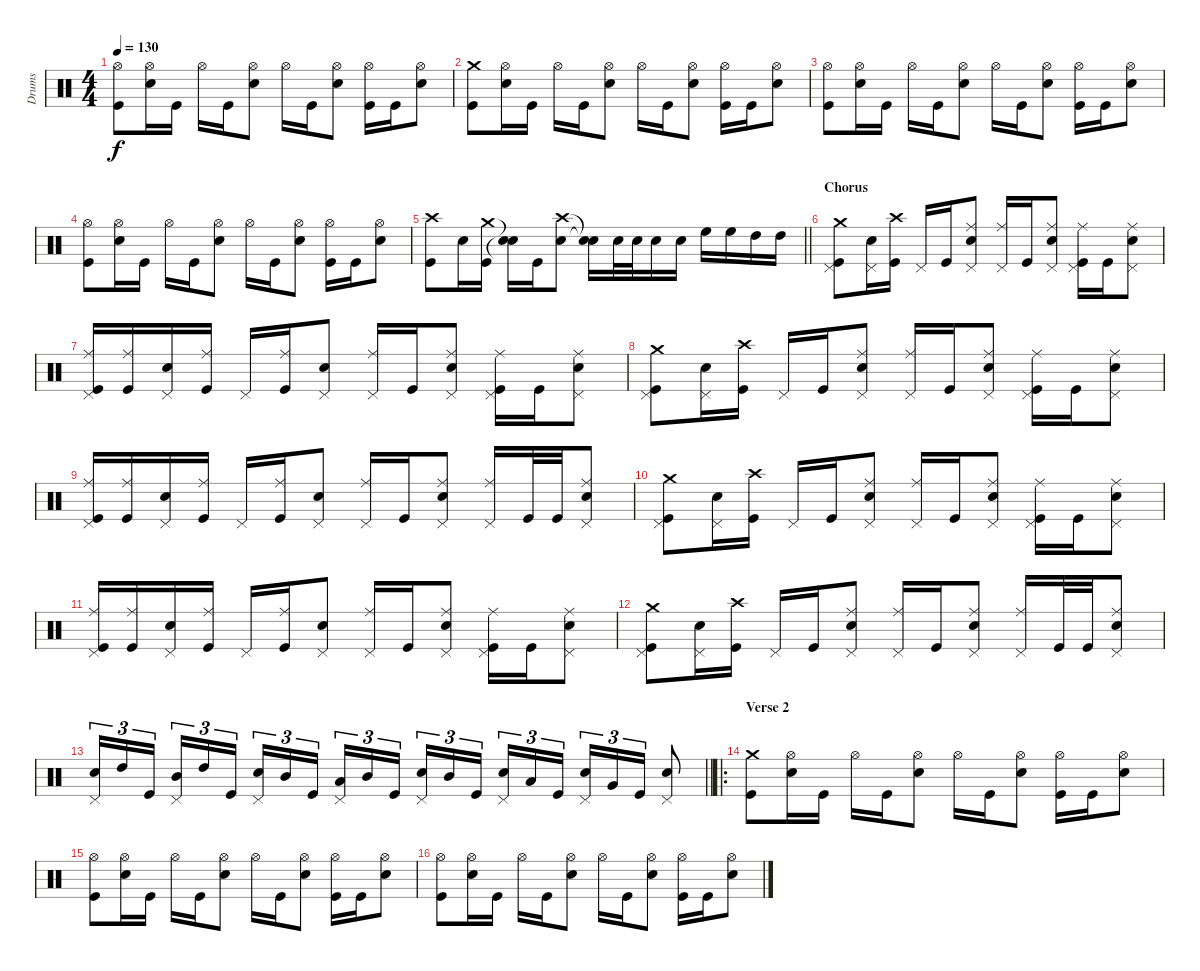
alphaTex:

\track ("Drums" "Drums") {instrument percussion}
\staff {score}
\articulation defaults
\ts (4 4)
\tempo 130
\clef neutral
\ks c
("Hi-Hat (open)" "Kick (hit)").8{dy f} ("Hi-Hat (open)" "Snare (hit) 2").16 "Kick (hit)".16 "Hi-Hat (open)".16 "Kick (hit)".16 ("Hi-Hat (open)" "Snare (hit) 2").8 "Hi-Hat (open)".16 "Kick (hit)".16 ("Hi-Hat (open)" "Snare (hit) 2").8 ("Hi-Hat (open)" "Kick (hit)").16 "Kick (hit)".16 ("Hi-Hat (open)" "Snare (hit) 2").8 |
("Crash medium (hit)" "Kick (hit)").8 ("Hi-Hat (open)" "Snare (hit) 2").16 "Kick (hit)".16 "Hi-Hat (open)".16 "Kick (hit)".16 ("Hi-Hat (open)" "Snare (hit) 2").8 "Hi-Hat (open)".16 "Kick (hit)".16 ("Hi-Hat (open)" "Snare (hit) 2").8 ("Hi-Hat (open)" "Kick (hit)").16 "Kick (hit)".16 ("Hi-Hat (open)" "Snare (hit) 2").8 |
("Hi-Hat (open)" "Kick (hit)").8 ("Hi-Hat (open)" "Snare (hit) 2").16 "Kick (hit)".16 "Hi-Hat (open)".16 "Kick (hit)".16 ("Hi-Hat (open)" "Snare (hit) 2").8 "Hi-Hat (open)".16 "Kick (hit)".16 ("Hi-Hat (open)" "Snare (hit) 2").8 ("Hi-Hat (open)" "Kick (hit)").16 "Kick (hit)".16 ("Hi-Hat (open)" "Snare (hit) 2").8 |
("Hi-Hat (open)" "Kick (hit)").8 ("Hi-Hat (open)" "Snare (hit) 2").16 "Kick (hit)".16 "Hi-Hat (open)".16 "Kick (hit)".16 ("Hi-Hat (open)" "Snare (hit) 2").8 "Hi-Hat (open)".16 "Kick (hit)".16 ("Hi-Hat (open)" "Snare (hit) 2").8 ("Hi-Hat (open)" "Kick (hit)").16 "Kick (hit)".16 ("Hi-Hat (open)" "Snare (hit) 2").8 |
\barLineRight lightlight
("Crash high (hit)" "Kick (hit)").8 "Snare (hit) 2".16 ("Crash medium (hit)" "Kick (hit)").16 ("Snare (hit)"{t} "Snare (hit)"{t}).16 "Kick (hit)".16 ("Crash high (hit)" "Snare (hit) 2").8 ("Snare (hit)"{t} "Snare (hit)"{t}).16 "Snare (hit) 2".32 "Snare (hit) 2".32 "Snare (hit) 2".16 "Snare (hit) 2".16 "High Floor Tom (hit)".16 "High Floor Tom (hit)".16 "High Tom (hit)".16 "High Tom (hit)".16 |
\section ("" "Chorus")
("Crash medium (hit)" "Pedal Hi-Hat (hit)" "Kick (hit)").8 ("Snare (hit) 2" "Pedal Hi-Hat (hit)").16 ("Crash high (hit)" "Kick (hit)").16 "Pedal Hi-Hat (hit)".16 "Kick (hit)".16 ("Ride (middle)" "Snare (hit) 2" "Pedal Hi-Hat (hit)").8 ("Ride (middle)" "Pedal Hi-Hat (hit)").16 "Kick (hit)".16 ("Ride (middle)" "Snare (hit) 2" "Pedal Hi-Hat (hit)").8 ("Ride (middle)" "Pedal Hi-Hat (hit)" "Kick (hit)").16 "Kick (hit)".16 ("Ride (middle)" "Snare (hit) 2" "Pedal Hi-Hat (hit)").8 |
("Ride (middle)" "Pedal Hi-Hat (hit)" "Kick (hit)").16 ("Ride (middle)" "Kick (hit)").16 ("Snare (hit) 2" "Pedal Hi-Hat (hit)").16 ("Ride (middle)" "Kick (hit)").16 "Pedal Hi-Hat (hit)".16 ("Ride (middle)" "Kick (hit)").16 ("Snare (hit) 2" "Pedal Hi-Hat (hit)").8 ("Ride (middle)" "Pedal Hi-Hat (hit)").16 "Kick (hit)".16 ("Ride (middle)" "Snare (hit) 2" "Pedal Hi-Hat (hit)").8 ("Ride (middle)" "Pedal Hi-Hat (hit)" "Kick (hit)").16 "Kick (hit)".16 ("Ride (middle)" "Snare (hit) 2" "Pedal Hi-Hat (hit)").8 |
("Crash medium (hit)" "Pedal Hi-Hat (hit)" "Kick (hit)").8 ("Snare (hit) 2" "Pedal Hi-Hat (hit)").16 ("Crash high (hit)" "Kick (hit)").16 "Pedal Hi-Hat (hit)".16 "Kick (hit)".16 ("Ride (middle)" "Snare (hit) 2" "Pedal Hi-Hat (hit)").8 ("Ride (middle)" "Pedal Hi-Hat (hit)").16 "Kick (hit)".16 ("Ride (middle)" "Snare (hit) 2" "Pedal Hi-Hat (hit)").8 ("Ride (middle)" "Pedal Hi-Hat (hit)" "Kick (hit)").16 "Kick (hit)".16 ("Ride (middle)" "Snare (hit) 2" "Pedal Hi-Hat (hit)").8 |
("Ride (middle)" "Pedal Hi-Hat (hit)" "Kick (hit)").16 ("Ride (middle)" "Kick (hit)").16 ("Snare (hit) 2" "Pedal Hi-Hat (hit)").16 ("Ride (middle)" "Kick (hit)").16 "Pedal Hi-Hat (hit)".16 ("Ride (middle)" "Kick (hit)").16 ("Snare (hit) 2" "Pedal Hi-Hat (hit)").8 ("Ride (middle)" "Pedal Hi-Hat (hit)").16 "Kick (hit)".16 ("Ride (middle)" "Snare (hit) 2" "Pedal Hi-Hat (hit)").8 ("Ride (middle)" "Pedal Hi-Hat (hit)").16 "Kick (hit)".32 "Kick (hit)".32 ("Ride (middle)" "Snare (hit) 2" "Pedal Hi-Hat (hit)").8 |
("Crash medium (hit)" "Pedal Hi-Hat (hit)" "Kick (hit)").8 ("Snare (hit) 2" "Pedal Hi-Hat (hit)").16 ("Crash high (hit)" "Kick (hit)").16 "Pedal Hi-Hat (hit)".16 "Kick (hit)".16 ("Ride (middle)" "Snare (hit) 2" "Pedal Hi-Hat (hit)").8 ("Ride (middle)" "Pedal Hi-Hat (hit)").16 "Kick (hit)".16 ("Ride (middle)" "Snare (hit) 2" "Pedal Hi-Hat (hit)").8 ("Ride (middle)" "Pedal Hi-Hat (hit)" "Kick (hit)").16 "Kick (hit)".16 ("Ride (middle)" "Snare (hit) 2" "Pedal Hi-Hat (hit)").8 |
("Ride (middle)" "Pedal Hi-Hat (hit)" "Kick (hit)").16 ("Ride (middle)" "Kick (hit)").16 ("Snare (hit) 2" "Pedal Hi-Hat (hit)").16 ("Ride (middle)" "Kick (hit)").16 "Pedal Hi-Hat (hit)".16 ("Ride (middle)" "Kick (hit)").16 ("Snare (hit) 2" "Pedal Hi-Hat (hit)").8 ("Ride (middle)" "Pedal Hi-Hat (hit)").16 "Kick (hit)".16 ("Ride (middle)" "Snare (hit) 2" "Pedal Hi-Hat (hit)").8 ("Ride (middle)" "Pedal Hi-Hat (hit)" "Kick (hit)").16 "Kick (hit)".16 ("Ride (middle)" "Snare (hit) 2" "Pedal Hi-Hat (hit)").8 |
("Crash medium (hit)" "Pedal Hi-Hat (hit)" "Kick (hit)").8 ("Snare (hit) 2" "Pedal Hi-Hat (hit)").16 ("Crash high (hit)" "Kick (hit)").16 "Pedal Hi-Hat (hit)".16 "Kick (hit)".16 ("Ride (middle)" "Snare (hit) 2" "Pedal Hi-Hat (hit)").8 ("Ride (middle)" "Pedal Hi-Hat (hit)").16 "Kick (hit)".16 ("Ride (middle)" "Snare (hit) 2" "Pedal Hi-Hat (hit)").8 ("Ride (middle)" "Pedal Hi-Hat (hit)").16 "Kick (hit)".32 "Kick (hit)".32 ("Ride (middle)" "Snare (hit) 2" "Pedal Hi-Hat (hit)").8 |
\barLineRight lightlight
("Snare (hit) 2" "Pedal Hi-Hat (hit)").16{tu (3 2)} "High Tom (hit)".16{tu (3 2)} "Kick (hit)".16{tu (3 2) beam splitsecondary} ("Mid Tom (hit)" "Pedal Hi-Hat (hit)").16{tu (3 2)} "High Tom (hit)".16{tu (3 2)} "Kick (hit)".16{tu (3 2)} ("Snare (hit) 2" "Pedal Hi-Hat (hit)").16{tu (3 2)} "Mid Tom (hit)".16{tu (3 2)} "Kick (hit)".16{tu (3 2) beam splitsecondary} ("Low Tom (hit)" "Pedal Hi-Hat (hit)").16{tu (3 2)} "Mid Tom (hit)".16{tu (3 2)} "Kick (hit)".16{tu (3 2)} ("Snare (hit) 2" "Pedal Hi-Hat (hit)").16{tu (3 2)} "Mid Tom (hit)".16{tu (3 2)} "Kick (hit)".16{tu (3 2) beam splitsecondary} ("Snare (hit) 2" "Pedal Hi-Hat (hit)").16{tu (3 2)} "Low Tom (hit)".16{tu (3 2)} "Kick (hit)".16{tu (3 2)} ("Snare (hit) 2" "Pedal Hi-Hat (hit)").16{tu (3 2)} "Very Low Tom (hit)".16{tu (3 2)} "Kick (hit)".16{tu (3 2)} ("Snare (hit) 2" "Pedal Hi-Hat (hit)").8 |
\ro
\section ("" "Verse 2")
("Crash medium (hit)" "Kick (hit)").8 ("Hi-Hat (open)" "Snare (hit) 2").16 "Kick (hit)".16 "Hi-Hat (open)".16 "Kick (hit)".16 ("Hi-Hat (open)" "Snare (hit) 2").8 "Hi-Hat (open)".16 "Kick (hit)".16 ("Hi-Hat (open)" "Snare (hit) 2").8 ("Hi-Hat (open)" "Kick (hit)").16 "Kick (hit)".16 ("Hi-Hat (open)" "Snare (hit) 2").8 |
("Hi-Hat (open)" "Kick (hit)").8 ("Hi-Hat (open)" "Snare (hit) 2").16 "Kick (hit)".16 "Hi-Hat (open)".16 "Kick (hit)".16 ("Hi-Hat (open)" "Snare (hit) 2").8 "Hi-Hat (open)".16 "Kick (hit)".16 ("Hi-Hat (open)" "Snare (hit) 2").8 ("Hi-Hat (open)" "Kick (hit)").16 "Kick (hit)".16 ("Hi-Hat (open)" "Snare (hit) 2").8 |
("Hi-Hat (open)" "Kick (hit)").8 ("Hi-Hat (open)" "Snare (hit) 2").16 "Kick (hit)".16 "Hi-Hat (open)".16 "Kick (hit)".16 ("Hi-Hat (open)" "Snare (hit) 2").8 "Hi-Hat (open)".16 "Kick (hit)".16 ("Hi-Hat (open)" "Snare (hit) 2").8 ("Hi-Hat (open)" "Kick (hit)").16 "Kick (hit)".16 ("Hi-Hat (open)" "Snare (hit) 2").8
